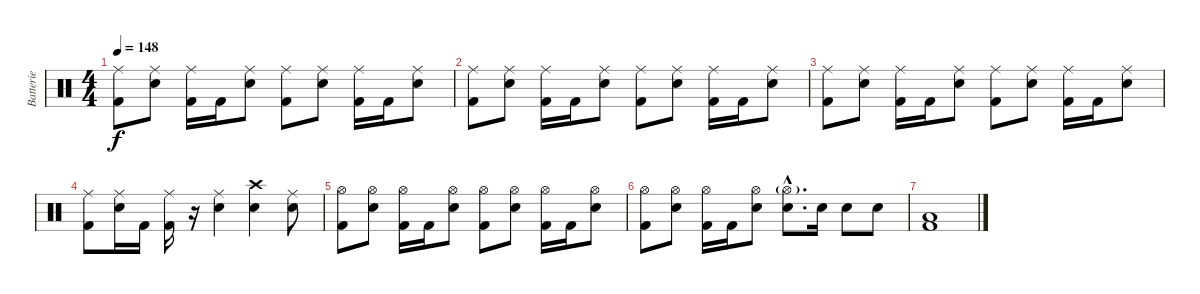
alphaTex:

\track ("Batterie" "Batterie") {instrument percussion}
\staff {score}
\articulation defaults
\ts (4 4)
\tempo 148
\clef neutral
\ks c
("Ride (middle)" "Kick (hit) 2").8{dy f} ("Ride (middle)" "Electric Snare (hit)").8 ("Ride (middle)" "Kick (hit) 2").16 "Kick (hit) 2".16 ("Ride (middle)" "Electric Snare (hit)").8 ("Ride (middle)" "Kick (hit) 2").8 ("Ride (middle)" "Electric Snare (hit)").8 ("Ride (middle)" "Kick (hit) 2").16 "Kick (hit) 2".16 ("Ride (middle)" "Electric Snare (hit)").8 |
("Ride (middle)" "Kick (hit) 2").8 ("Ride (middle)" "Electric Snare (hit)").8 ("Ride (middle)" "Kick (hit) 2").16 "Kick (hit) 2".16 ("Ride (middle)" "Electric Snare (hit)").8 ("Ride (middle)" "Kick (hit) 2").8 ("Ride (middle)" "Electric Snare (hit)").8 ("Ride (middle)" "Kick (hit) 2").16 "Kick (hit) 2".16 ("Ride (middle)" "Electric Snare (hit)").8 |
("Ride (middle)" "Kick (hit) 2").8 ("Ride (middle)" "Electric Snare (hit)").8 ("Ride (middle)" "Kick (hit) 2").16 "Kick (hit) 2".16 ("Ride (middle)" "Electric Snare (hit)").8 ("Ride (middle)" "Kick (hit) 2").8 ("Ride (middle)" "Electric Snare (hit)").8 ("Ride (middle)" "Kick (hit) 2").16 "Kick (hit) 2".16 ("Ride (middle)" "Electric Snare (hit)").8 |
("Ride (middle)" "Kick (hit) 2").8 ("Ride (middle)" "Electric Snare (hit)").16 "Kick (hit) 2".16 ("Ride (middle)" "Kick (hit) 2").16 r.16 ("Ride (middle)" "Electric Snare (hit)").4 ("Crash high (hit)" "Electric Snare (hit)").4 ("Ride (middle)" "Electric Snare (hit)").8 |
("Hi-Hat (open)" "Kick (hit) 2").8 ("Hi-Hat (open)" "Electric Snare (hit)").8 ("Hi-Hat (open)" "Kick (hit) 2").16 "Kick (hit) 2".16 ("Hi-Hat (open)" "Electric Snare (hit)").8 ("Hi-Hat (open)" "Kick (hit) 2").8 ("Hi-Hat (open)" "Electric Snare (hit)").8 ("Hi-Hat (open)" "Kick (hit) 2").16 "Kick (hit) 2".16 ("Hi-Hat (open)" "Electric Snare (hit)").8 |
("Hi-Hat (open)" "Kick (hit) 2").8 ("Hi-Hat (open)" "Electric Snare (hit)").8 ("Hi-Hat (open)" "Kick (hit) 2").16 "Kick (hit) 2".16 ("Hi-Hat (open)" "Electric Snare (hit)").8 ("Hi-Hat (open)"{g hac} "Electric Snare (hit)"{hac}).8{d} "Electric Snare (hit)".16 "Electric Snare (hit)".8 "Electric Snare (hit)".8 |
("Kick (hit) 2" "Low Tom (hit)").1
